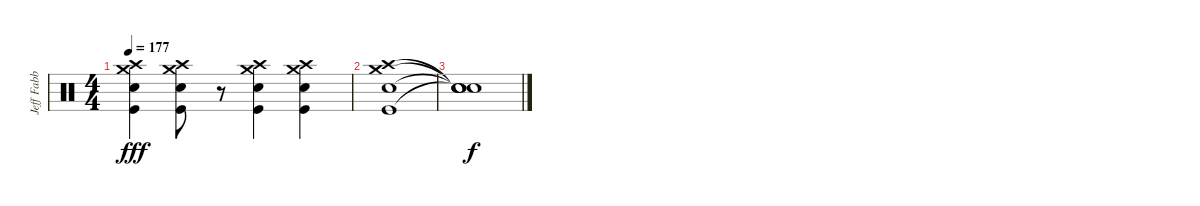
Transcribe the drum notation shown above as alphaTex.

\track ("Jeff Fabb (Drums)" "Jeff Fabb ") {instrument percussion}
\staff {score}
\articulation defaults
\ts (4 4)
\tempo 177
\clef neutral
\ks c
("Crash high (hit)" "Crash medium (hit)" "Electric Snare (hit)" "Kick (hit)").4{dy fff} ("Crash high (hit)" "Crash medium (hit)" "Electric Snare (hit)" "Kick (hit)").8 r.8 ("Crash high (hit)" "Crash medium (hit)" "Electric Snare (hit)" "Kick (hit)").4 ("Crash high (hit)" "Crash medium (hit)" "Electric Snare (hit)" "Kick (hit)").4 |
("Crash high (hit)" "Crash medium (hit)" "Electric Snare (hit)" "Kick (hit)").1 |
("Snare (hit)"{t} "Snare (hit)"{t} "Snare (hit)"{t} "Snare (hit)"{t}).1{dy f}
